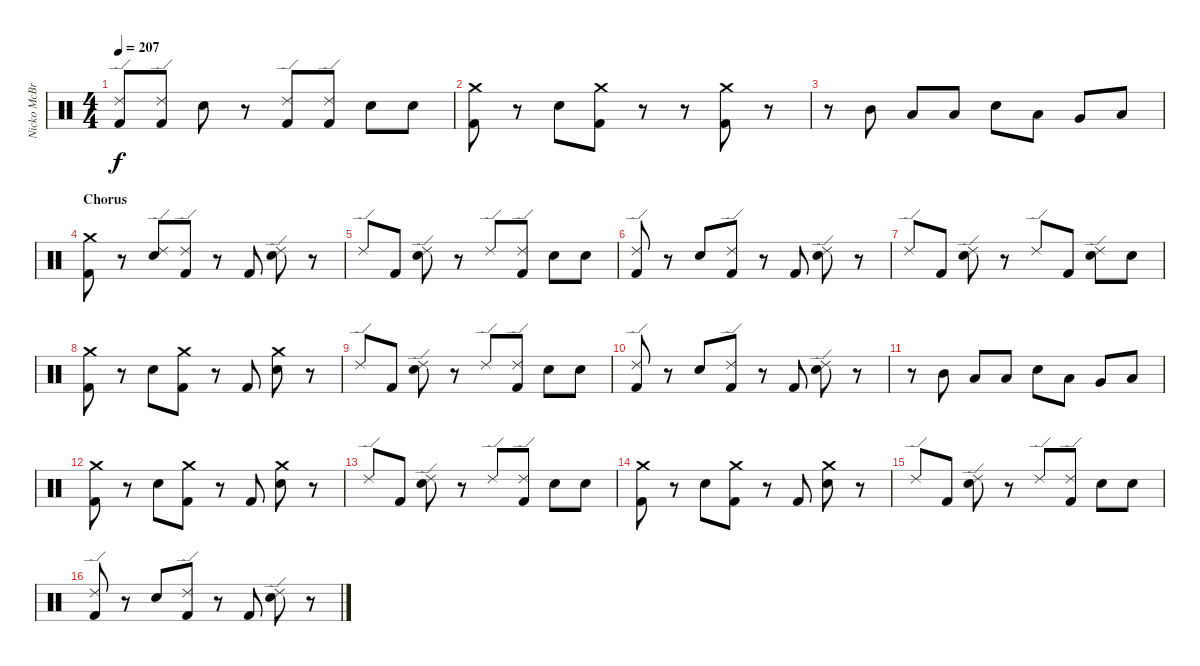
\track ("Nicko McBrain" "Nicko McBr") {instrument percussion}
\staff {score}
\articulation defaults
\ts (4 4)
\tempo 207
\clef neutral
\ks c
("Ride (edge) 2" "Kick (hit) 2").8{dy f} ("Ride (edge) 2" "Kick (hit) 2").8 "Snare (hit) 2".8 r.8 ("Ride (edge) 2" "Kick (hit) 2").8 ("Ride (edge) 2" "Kick (hit) 2").8 "Snare (hit) 2".8 "Snare (hit) 2".8 |
("Crash medium (hit)" "Kick (hit) 2").8 r.8 "Snare (hit) 2".8 ("Crash medium (hit)" "Kick (hit) 2").8 r.8 r.8 ("Crash medium (hit)" "Kick (hit) 2").8 r.8 |
r.8 "Mid Tom (hit)".8 "Low Tom (hit)".8 "Low Tom (hit)".8 "Snare (hit) 2".8 "Low Tom (hit)".8 "Very Low Tom (hit)".8 "Low Floor Tom (hit)".8 |
\section ("" "Chorus")
("Crash medium (hit)" "Kick (hit) 2").8 r.8 ("Ride (edge) 2" "Snare (hit) 2").8 ("Ride (edge) 2" "Kick (hit) 2").8 r.8 "Kick (hit) 2".8 ("Ride (edge) 2" "Snare (hit) 2").8 r.8 |
"Ride (edge) 2".8 "Kick (hit) 2".8 ("Ride (edge) 2" "Snare (hit) 2").8 r.8 "Ride (edge) 2".8 ("Ride (edge) 2" "Kick (hit) 2").8 "Snare (hit) 2".8 "Snare (hit) 2".8 |
("Ride (edge) 2" "Kick (hit) 2").8 r.8 "Snare (hit) 2".8 ("Ride (edge) 2" "Kick (hit) 2").8 r.8 "Kick (hit) 2".8 ("Ride (edge) 2" "Snare (hit) 2").8 r.8 |
"Ride (edge) 2".8 "Kick (hit) 2".8 ("Ride (edge) 2" "Snare (hit) 2").8 r.8 "Ride (edge) 2".8 "Kick (hit) 2".8 ("Ride (edge) 2" "Snare (hit) 2").8 "Snare (hit) 2".8 |
("Crash medium (hit)" "Kick (hit) 2").8 r.8 "Snare (hit) 2".8 ("Crash medium (hit)" "Kick (hit) 2").8 r.8 "Kick (hit) 2".8 ("Crash medium (hit)" "Snare (hit) 2").8 r.8 |
"Ride (edge) 2".8 "Kick (hit) 2".8 ("Ride (edge) 2" "Snare (hit) 2").8 r.8 "Ride (edge) 2".8 ("Ride (edge) 2" "Kick (hit) 2").8 "Snare (hit) 2".8 "Snare (hit) 2".8 |
("Ride (edge) 2" "Kick (hit) 2").8 r.8 "Snare (hit) 2".8 ("Ride (edge) 2" "Kick (hit) 2").8 r.8 "Kick (hit) 2".8 ("Ride (edge) 2" "Snare (hit) 2").8 r.8 |
r.8 "Mid Tom (hit)".8 "Low Tom (hit)".8 "Low Tom (hit)".8 "Snare (hit) 2".8 "Low Tom (hit)".8 "Very Low Tom (hit)".8 "Low Floor Tom (hit)".8 |
("Crash medium (hit)" "Kick (hit) 2").8 r.8 "Snare (hit) 2".8 ("Crash medium (hit)" "Kick (hit) 2").8 r.8 "Kick (hit) 2".8 ("Crash medium (hit)" "Snare (hit) 2").8 r.8 |
"Ride (edge) 2".8 "Kick (hit) 2".8 ("Ride (edge) 2" "Snare (hit) 2").8 r.8 "Ride (edge) 2".8 ("Ride (edge) 2" "Kick (hit) 2").8 "Snare (hit) 2".8 "Snare (hit) 2".8 |
("Crash medium (hit)" "Kick (hit) 2").8 r.8 "Snare (hit) 2".8 ("Crash medium (hit)" "Kick (hit) 2").8 r.8 "Kick (hit) 2".8 ("Crash medium (hit)" "Snare (hit) 2").8 r.8 |
"Ride (edge) 2".8 "Kick (hit) 2".8 ("Ride (edge) 2" "Snare (hit) 2").8 r.8 "Ride (edge) 2".8 ("Ride (edge) 2" "Kick (hit) 2").8 "Snare (hit) 2".8 "Snare (hit) 2".8 |
("Ride (edge) 2" "Kick (hit) 2").8 r.8 "Snare (hit) 2".8 ("Ride (edge) 2" "Kick (hit) 2").8 r.8 "Kick (hit) 2".8 ("Ride (edge) 2" "Snare (hit) 2").8 r.8
